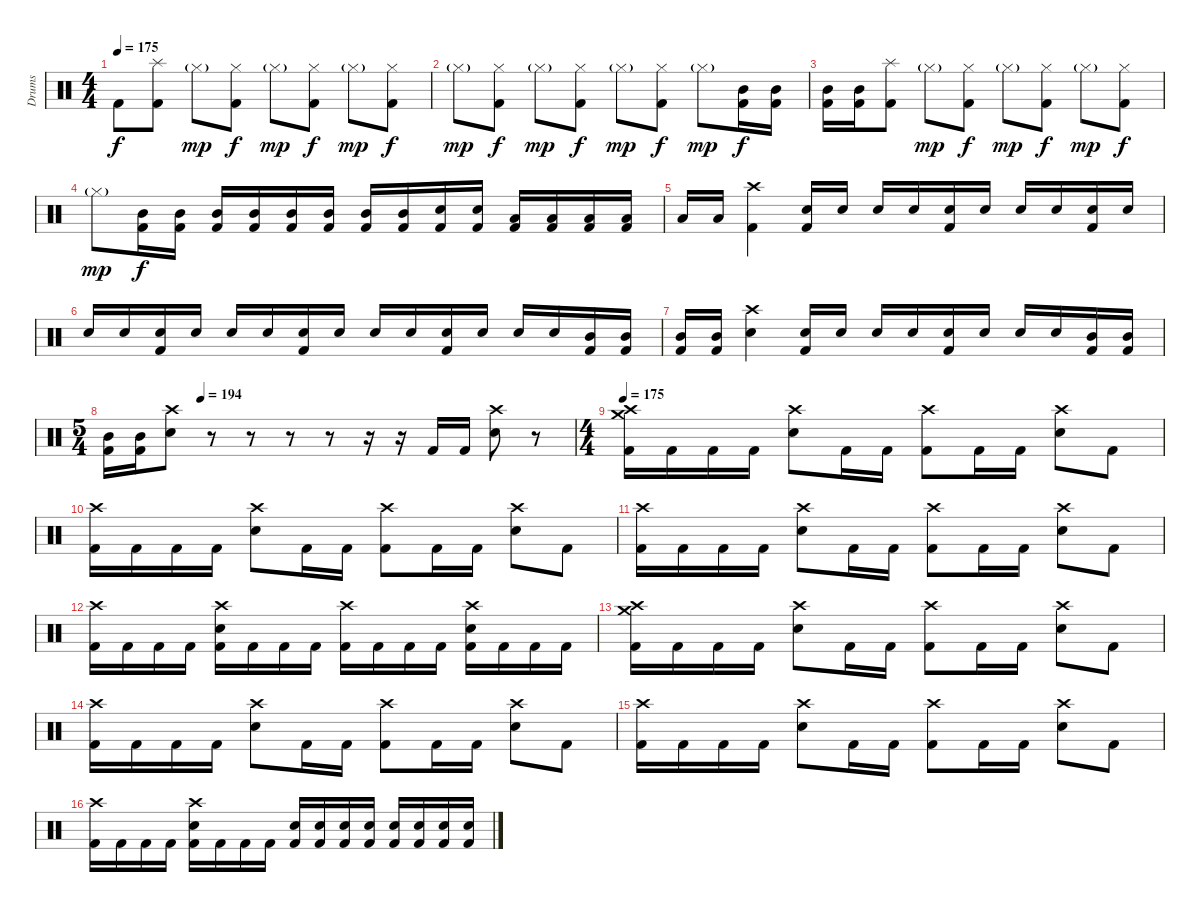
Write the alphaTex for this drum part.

\track ("Drums" "Drums") {instrument percussion}
\staff {score}
\articulation defaults
\ts (4 4)
\tempo 175
\clef neutral
\ks c "Kick (hit) 2".8{dy f}
("Splash (hit)" "Kick (hit) 2").8 "Hi-Hat (closed)"{g}.8{dy mp} ("Hi-Hat (closed)" "Kick (hit) 2").8{dy f} "Hi-Hat (closed)"{g}.8{dy mp} ("Hi-Hat (closed)" "Kick (hit) 2").8{dy f} "Hi-Hat (closed)"{g}.8{dy mp} ("Hi-Hat (closed)" "Kick (hit) 2").8{dy f} |
"Hi-Hat (closed)"{g}.8{dy mp} ("Hi-Hat (closed)" "Kick (hit) 2").8{dy f} "Hi-Hat (closed)"{g}.8{dy mp} ("Hi-Hat (closed)" "Kick (hit) 2").8{dy f} "Hi-Hat (closed)"{g}.8{dy mp} ("Hi-Hat (closed)" "Kick (hit) 2").8{dy f} "Hi-Hat (closed)"{g}.8{dy mp} ("Mid Tom (hit)" "Kick (hit) 2").16{dy f} ("Mid Tom (hit)" "Kick (hit) 2").16 |
("Mid Tom (hit)" "Kick (hit) 2").16 ("Mid Tom (hit)" "Kick (hit) 2").16 ("Splash (hit)" "Kick (hit) 2").8 "Hi-Hat (closed)"{g}.8{dy mp} ("Hi-Hat (closed)" "Kick (hit) 2").8{dy f} "Hi-Hat (closed)"{g}.8{dy mp} ("Hi-Hat (closed)" "Kick (hit) 2").8{dy f} "Hi-Hat (closed)"{g}.8{dy mp} ("Hi-Hat (closed)" "Kick (hit) 2").8{dy f} |
"Hi-Hat (closed)"{g}.8{dy mp} ("Mid Tom (hit)" "Kick (hit) 2").16{dy f} ("Mid Tom (hit)" "Kick (hit) 2").16 ("Mid Tom (hit)" "Kick (hit) 2").16 ("Mid Tom (hit)" "Kick (hit) 2").16 ("Mid Tom (hit)" "Kick (hit) 2").16 ("Mid Tom (hit)" "Kick (hit) 2").16 ("Mid Tom (hit)" "Kick (hit) 2").16 ("Mid Tom (hit)" "Kick (hit) 2").16 ("Snare (hit) 2" "Kick (hit) 2").16 ("Snare (hit) 2" "Kick (hit) 2").16 ("Low Tom (hit)" "Kick (hit) 2").16 ("Low Tom (hit)" "Kick (hit) 2").16 ("Low Tom (hit)" "Kick (hit) 2").16 ("Low Tom (hit)" "Kick (hit) 2").16 |
"Low Tom (hit)".16 "Low Tom (hit)".16 ("Crash high (hit)" "Kick (hit) 2").4 ("Snare (hit) 2" "Kick (hit) 2").16 "Snare (hit) 2".16 "Snare (hit) 2".16 "Snare (hit) 2".16 ("Snare (hit) 2" "Kick (hit) 2").16 "Snare (hit) 2".16 "Snare (hit) 2".16 "Snare (hit) 2".16 ("Snare (hit) 2" "Kick (hit) 2").16 "Snare (hit) 2".16 |
"Snare (hit) 2".16 "Snare (hit) 2".16 ("Snare (hit) 2" "Kick (hit) 2").16 "Snare (hit) 2".16 "Snare (hit) 2".16 "Snare (hit) 2".16 ("Snare (hit) 2" "Kick (hit) 2").16 "Snare (hit) 2".16 "Snare (hit) 2".16 "Snare (hit) 2".16 ("Snare (hit) 2" "Kick (hit) 2").16 "Snare (hit) 2".16 "Snare (hit) 2".16 "Snare (hit) 2".16 ("Mid Tom (hit)" "Kick (hit) 2").16 ("Mid Tom (hit)" "Kick (hit) 2").16 |
("Mid Tom (hit)" "Kick (hit) 2").16 ("Mid Tom (hit)" "Kick (hit) 2").16 ("Crash high (hit)" "Snare (hit) 2").4 ("Snare (hit) 2" "Kick (hit) 2").16 "Snare (hit) 2".16 "Snare (hit) 2".16 "Snare (hit) 2".16 ("Snare (hit) 2" "Kick (hit) 2").16 "Snare (hit) 2".16 "Snare (hit) 2".16 "Snare (hit) 2".16 ("Mid Tom (hit)" "Kick (hit) 2").16 ("Mid Tom (hit)" "Kick (hit) 2").16 |
\ts (5 4)
\tempo (194 0.2)
("Mid Tom (hit)" "Kick (hit) 2").16 ("Mid Tom (hit)" "Kick (hit) 2").16 ("Crash high (hit)" "Snare (hit) 2").8 r.8 r.8 r.8 r.8 r.16 r.16 "Kick (hit) 2".16 "Kick (hit) 2".16 ("Crash high (hit)" "Snare (hit) 2").8 r.8 |
\ts (4 4)
\tempo 175
("Crash medium (hit)" "Crash high (hit)" "Kick (hit) 2").16 "Kick (hit) 2".16 "Kick (hit) 2".16 "Kick (hit) 2".16 ("Crash high (hit)" "Snare (hit) 2").8 "Kick (hit) 2".16 "Kick (hit) 2".16 ("Crash high (hit)" "Kick (hit) 2").8 "Kick (hit) 2".16 "Kick (hit) 2".16 ("Crash high (hit)" "Snare (hit) 2").8 "Kick (hit) 2".8 |
("Crash high (hit)" "Kick (hit) 2").16 "Kick (hit) 2".16 "Kick (hit) 2".16 "Kick (hit) 2".16 ("Crash high (hit)" "Snare (hit) 2").8 "Kick (hit) 2".16 "Kick (hit) 2".16 ("Crash high (hit)" "Kick (hit) 2").8 "Kick (hit) 2".16 "Kick (hit) 2".16 ("Crash high (hit)" "Snare (hit) 2").8 "Kick (hit) 2".8 |
("Crash high (hit)" "Kick (hit) 2").16 "Kick (hit) 2".16 "Kick (hit) 2".16 "Kick (hit) 2".16 ("Crash high (hit)" "Snare (hit) 2").8 "Kick (hit) 2".16 "Kick (hit) 2".16 ("Crash high (hit)" "Kick (hit) 2").8 "Kick (hit) 2".16 "Kick (hit) 2".16 ("Crash high (hit)" "Snare (hit) 2").8 "Kick (hit) 2".8 |
("Crash high (hit)" "Kick (hit) 2").16 "Kick (hit) 2".16 "Kick (hit) 2".16 "Kick (hit) 2".16 ("Crash high (hit)" "Snare (hit) 2" "Kick (hit) 2").16 "Kick (hit) 2".16 "Kick (hit) 2".16 "Kick (hit) 2".16 ("Crash high (hit)" "Kick (hit) 2").16 "Kick (hit) 2".16 "Kick (hit) 2".16 "Kick (hit) 2".16 ("Crash high (hit)" "Snare (hit) 2" "Kick (hit) 2").16 "Kick (hit) 2".16 "Kick (hit) 2".16 "Kick (hit) 2".16 |
("Crash medium (hit)" "Crash high (hit)" "Kick (hit) 2").16 "Kick (hit) 2".16 "Kick (hit) 2".16 "Kick (hit) 2".16 ("Crash high (hit)" "Snare (hit) 2").8 "Kick (hit) 2".16 "Kick (hit) 2".16 ("Crash high (hit)" "Kick (hit) 2").8 "Kick (hit) 2".16 "Kick (hit) 2".16 ("Crash high (hit)" "Snare (hit) 2").8 "Kick (hit) 2".8 |
("Crash high (hit)" "Kick (hit) 2").16 "Kick (hit) 2".16 "Kick (hit) 2".16 "Kick (hit) 2".16 ("Crash high (hit)" "Snare (hit) 2").8 "Kick (hit) 2".16 "Kick (hit) 2".16 ("Crash high (hit)" "Kick (hit) 2").8 "Kick (hit) 2".16 "Kick (hit) 2".16 ("Crash high (hit)" "Snare (hit) 2").8 "Kick (hit) 2".8 |
("Crash high (hit)" "Kick (hit) 2").16 "Kick (hit) 2".16 "Kick (hit) 2".16 "Kick (hit) 2".16 ("Crash high (hit)" "Snare (hit) 2").8 "Kick (hit) 2".16 "Kick (hit) 2".16 ("Crash high (hit)" "Kick (hit) 2").8 "Kick (hit) 2".16 "Kick (hit) 2".16 ("Crash high (hit)" "Snare (hit) 2").8 "Kick (hit) 2".8 |
("Crash high (hit)" "Kick (hit) 2").16 "Kick (hit) 2".16 "Kick (hit) 2".16 "Kick (hit) 2".16 ("Crash high (hit)" "Snare (hit) 2" "Kick (hit) 2").16 "Kick (hit) 2".16 "Kick (hit) 2".16 "Kick (hit) 2".16 ("Snare (hit) 2" "Kick (hit) 2").16 ("Snare (hit) 2" "Kick (hit) 2").16 ("Snare (hit) 2" "Kick (hit) 2").16 ("Snare (hit) 2" "Kick (hit) 2").16 ("Snare (hit) 2" "Kick (hit) 2").16 ("Snare (hit) 2" "Kick (hit) 2").16 ("Snare (hit) 2" "Kick (hit) 2").16 ("Snare (hit) 2" "Kick (hit) 2").16
